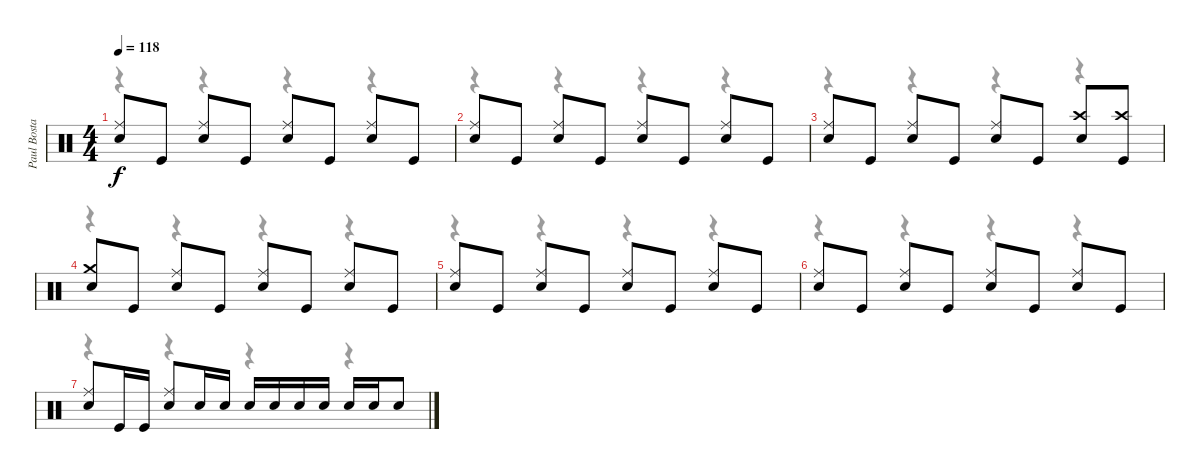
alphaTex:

\track ("Paul Bostaph" "Paul Bosta") {instrument percussion}
\staff {score}
\articulation defaults
\voice
\ts (4 4)
\tempo 118
\clef neutral
\ks c
("Ride (middle)" "Snare (hit) 2").8{dy f} "Kick (hit)".8 ("Ride (middle)" "Snare (hit) 2").8 "Kick (hit)".8 ("Ride (middle)" "Snare (hit) 2").8 "Kick (hit)".8 ("Ride (middle)" "Snare (hit) 2").8 "Kick (hit)".8 |
("Ride (middle)" "Snare (hit) 2").8 "Kick (hit)".8 ("Ride (middle)" "Snare (hit) 2").8 "Kick (hit)".8 ("Ride (middle)" "Snare (hit) 2").8 "Kick (hit)".8 ("Ride (middle)" "Snare (hit) 2").8 "Kick (hit)".8 |
("Ride (middle)" "Snare (hit) 2").8 "Kick (hit)".8 ("Ride (middle)" "Snare (hit) 2").8 "Kick (hit)".8 ("Ride (middle)" "Snare (hit) 2").8 "Kick (hit)".8 ("Crash high (hit)" "Snare (hit) 2").8 ("Crash high (hit)" "Kick (hit)").8 |
("Crash medium (hit)" "Snare (hit) 2").8 "Kick (hit)".8 ("Ride (middle)" "Snare (hit) 2").8 "Kick (hit)".8 ("Ride (middle)" "Snare (hit) 2").8 "Kick (hit)".8 ("Ride (middle)" "Snare (hit) 2").8 "Kick (hit)".8 |
("Ride (middle)" "Snare (hit) 2").8 "Kick (hit)".8 ("Ride (middle)" "Snare (hit) 2").8 "Kick (hit)".8 ("Ride (middle)" "Snare (hit) 2").8 "Kick (hit)".8 ("Ride (middle)" "Snare (hit) 2").8 "Kick (hit)".8 |
("Ride (middle)" "Snare (hit) 2").8 "Kick (hit)".8 ("Ride (middle)" "Snare (hit) 2").8 "Kick (hit)".8 ("Ride (middle)" "Snare (hit) 2").8 "Kick (hit)".8 ("Ride (middle)" "Snare (hit) 2").8 "Kick (hit)".8 |
("Ride (middle)" "Snare (hit) 2").8 "Kick (hit)".16 "Kick (hit)".16 ("Ride (middle)" "Snare (hit) 2").8 "Snare (hit) 2".16 "Snare (hit) 2".16 "Snare (hit) 2".16 "Snare (hit) 2".16 "Snare (hit) 2".16 "Snare (hit) 2".16 "Snare (hit) 2".16 "Snare (hit) 2".16 "Snare (hit) 2".8
\voice
\clef neutral
\ottava regular
\simile none
\ks c
r.4{dy f} r.4 r.4 r.4 |
r.4 r.4 r.4 r.4 |
r.4 r.4 r.4 r.4 |
r.4 r.4 r.4 r.4 |
r.4 r.4 r.4 r.4 |
r.4 r.4 r.4 r.4 |
r.4 r.4 r.4 r.4
